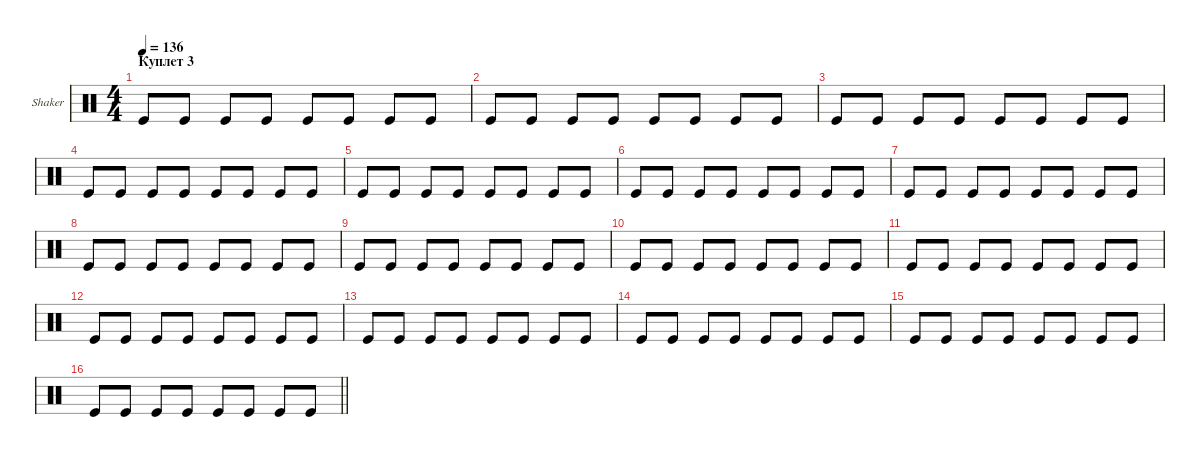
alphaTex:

\defaultSystemsLayout 4
\hideDynamics
\bracketExtendMode groupsimilarinstruments
\multiTrackTrackNamePolicy allsystems
\firstSystemTrackNameOrientation horizontal
\otherSystemsTrackNameOrientation horizontal
\track ("Shaker" "Shaker") {instrument percussion}
\staff {score}
\articulation defaults
\ts (4 4)
\section ("" "Куплет 3")
\tempo 136
\clef neutral
\ks aminor "Kick (hit)".8{dy mf} "Kick (hit)".8 "Kick (hit)".8 "Kick (hit)".8 "Kick (hit)".8 "Kick (hit)".8 "Kick (hit)".8 "Kick (hit)".8
|
"Kick (hit)".8 "Kick (hit)".8 "Kick (hit)".8 "Kick (hit)".8 "Kick (hit)".8 "Kick (hit)".8 "Kick (hit)".8 "Kick (hit)".8 |
"Kick (hit)".8 "Kick (hit)".8 "Kick (hit)".8 "Kick (hit)".8 "Kick (hit)".8 "Kick (hit)".8 "Kick (hit)".8 "Kick (hit)".8 |
"Kick (hit)".8 "Kick (hit)".8 "Kick (hit)".8 "Kick (hit)".8 "Kick (hit)".8 "Kick (hit)".8 "Kick (hit)".8 "Kick (hit)".8 |
"Kick (hit)".8 "Kick (hit)".8 "Kick (hit)".8 "Kick (hit)".8 "Kick (hit)".8 "Kick (hit)".8 "Kick (hit)".8 "Kick (hit)".8 |
"Kick (hit)".8 "Kick (hit)".8 "Kick (hit)".8 "Kick (hit)".8 "Kick (hit)".8 "Kick (hit)".8 "Kick (hit)".8 "Kick (hit)".8 |
"Kick (hit)".8 "Kick (hit)".8 "Kick (hit)".8 "Kick (hit)".8 "Kick (hit)".8 "Kick (hit)".8 "Kick (hit)".8 "Kick (hit)".8 |
\scale
0.247475 "Kick (hit)".8 "Kick (hit)".8 "Kick (hit)".8 "Kick (hit)".8 "Kick (hit)".8 "Kick (hit)".8 "Kick (hit)".8 "Kick (hit)".8 |
\scale
0.237374 "Kick (hit)".8 "Kick (hit)".8 "Kick (hit)".8 "Kick (hit)".8 "Kick (hit)".8 "Kick (hit)".8 "Kick (hit)".8 "Kick (hit)".8 |
\scale
0.249505 "Kick (hit)".8 "Kick (hit)".8 "Kick (hit)".8 "Kick (hit)".8 "Kick (hit)".8 "Kick (hit)".8 "Kick (hit)".8 "Kick (hit)".8 |
\scale
0.265119 "Kick (hit)".8 "Kick (hit)".8 "Kick (hit)".8 "Kick (hit)".8 "Kick (hit)".8 "Kick (hit)".8 "Kick (hit)".8 "Kick (hit)".8 |
\scale
0.267677 "Kick (hit)".8 "Kick (hit)".8 "Kick (hit)".8 "Kick (hit)".8 "Kick (hit)".8 "Kick (hit)".8 "Kick (hit)".8 "Kick (hit)".8 |
\scale
0.250008 "Kick (hit)".8 "Kick (hit)".8 "Kick (hit)".8 "Kick (hit)".8 "Kick (hit)".8 "Kick (hit)".8 "Kick (hit)".8 "Kick (hit)".8 |
\scale
0.265188 "Kick (hit)".8 "Kick (hit)".8 "Kick (hit)".8 "Kick (hit)".8 "Kick (hit)".8 "Kick (hit)".8 "Kick (hit)".8 "Kick (hit)".8 |
\scale
0.217172 "Kick (hit)".8 "Kick (hit)".8 "Kick (hit)".8 "Kick (hit)".8 "Kick (hit)".8 "Kick (hit)".8 "Kick (hit)".8 "Kick (hit)".8 |
\barLineRight lightlight "Kick (hit)".8 "Kick (hit)".8 "Kick (hit)".8 "Kick (hit)".8 "Kick (hit)".8 "Kick (hit)".8 "Kick (hit)".8 "Kick (hit)".8
